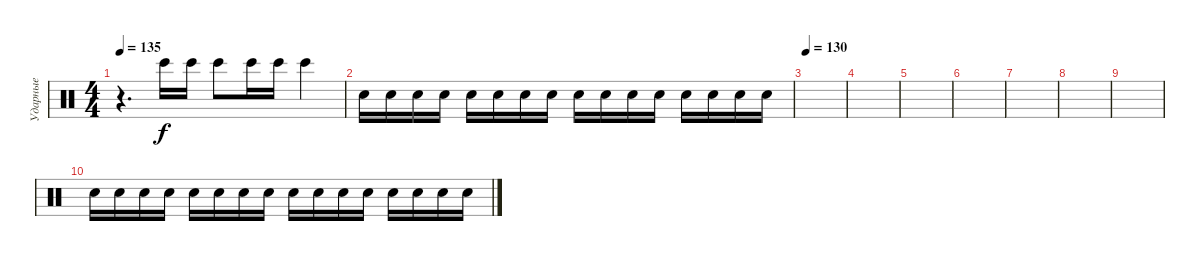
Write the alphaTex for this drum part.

\track ("Ударные" "Ударные") {instrument percussion}
\staff {score}
\articulation defaults
\ts (4 4)
\tempo 135
\clef neutral
\ks c
r.4{d dy f} "Bongo High (hit)".16 "Bongo High (hit)".16 "Bongo High (hit)".8 "Bongo High (hit)".16 "Bongo High (hit)".16 "Bongo High (hit)".4 |
"Electric Snare (hit)".16 "Electric Snare (hit)".16 "Electric Snare (hit)".16 "Electric Snare (hit)".16 "Electric Snare (hit)".16 "Electric Snare (hit)".16 "Electric Snare (hit)".16 "Electric Snare (hit)".16 "Electric Snare (hit)".16 "Electric Snare (hit)".16 "Electric Snare (hit)".16 "Electric Snare (hit)".16 "Electric Snare (hit)".16 "Electric Snare (hit)".16 "Electric Snare (hit)".16 "Electric Snare (hit)".16 |
\tempo 130
|
|
|
|
|
|
|
"Electric Snare (hit)".16 "Electric Snare (hit)".16 "Electric Snare (hit)".16 "Electric Snare (hit)".16 "Electric Snare (hit)".16 "Electric Snare (hit)".16 "Electric Snare (hit)".16 "Electric Snare (hit)".16 "Electric Snare (hit)".16 "Electric Snare (hit)".16 "Electric Snare (hit)".16 "Electric Snare (hit)".16 "Electric Snare (hit)".16 "Electric Snare (hit)".16 "Electric Snare (hit)".16 "Electric Snare (hit)".16
